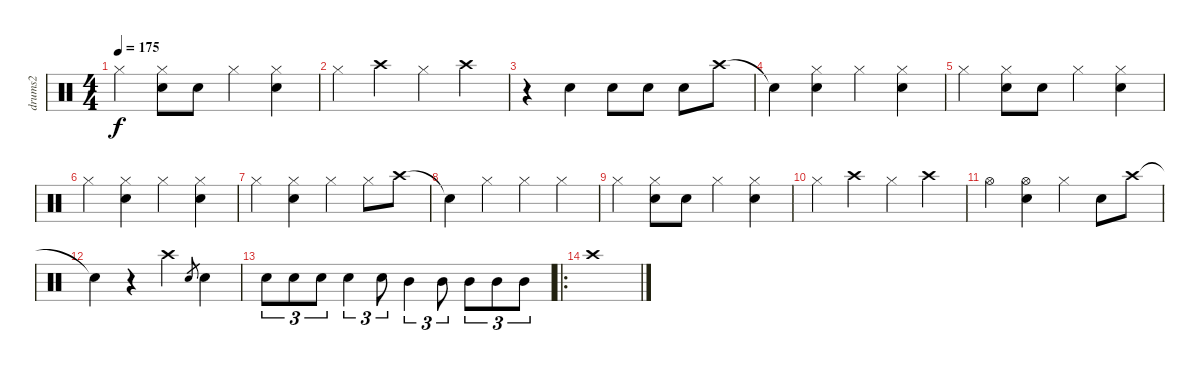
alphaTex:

\track ("drums2" "drums2") {instrument percussion}
\staff {score}
\articulation defaults
\ts (4 4)
\tempo 175
\clef neutral
\ks c "Hi-Hat (closed)".4{dy f}
("Hi-Hat (closed)" "Snare (hit) 2").8 "Snare (hit) 2".8 "Hi-Hat (closed)".4 ("Hi-Hat (closed)" "Snare (hit) 2").4 |
"Hi-Hat (closed)".4 "Crash high (hit)".4 "Hi-Hat (closed)".4 "Crash high (hit)".4 |
r.4 "Snare (hit) 2".4 "Snare (hit) 2".8 "Snare (hit) 2".8 "Snare (hit) 2".8 "Crash high (hit)".8 |
"Snare (hit)"{t}.4 ("Hi-Hat (closed)" "Snare (hit) 2").4 "Hi-Hat (closed)".4 ("Hi-Hat (closed)" "Snare (hit) 2").4 |
"Hi-Hat (closed)".4 ("Hi-Hat (closed)" "Snare (hit) 2").8 "Snare (hit) 2".8 "Hi-Hat (closed)".4 ("Hi-Hat (closed)" "Snare (hit) 2").4 |
"Hi-Hat (closed)".4 ("Hi-Hat (closed)" "Snare (hit) 2").4 "Hi-Hat (closed)".4 ("Hi-Hat (closed)" "Snare (hit) 2").4 |
"Hi-Hat (closed)".4 ("Hi-Hat (closed)" "Snare (hit) 2").4 "Hi-Hat (closed)".4 "Hi-Hat (closed)".8 "Crash high (hit)".8 |
"Snare (hit)"{t}.4 "Hi-Hat (closed)".4 "Hi-Hat (closed)".4 "Hi-Hat (closed)".4 |
"Hi-Hat (closed)".4 ("Hi-Hat (closed)" "Snare (hit) 2").8 "Snare (hit) 2".8 "Hi-Hat (closed)".4 ("Hi-Hat (closed)" "Snare (hit) 2").4 |
"Hi-Hat (closed)".4 "Crash high (hit)".4 "Hi-Hat (closed)".4 "Crash high (hit)".4 |
"Hi-Hat (open)".4 ("Hi-Hat (open)" "Snare (hit) 2").4 "Hi-Hat (closed)".4 "Snare (hit) 2".8 "Crash high (hit)".8 |
"Snare (hit)"{t}.4 r.4 "Crash high (hit)".4 "Snare (hit) 2".8{gr} "Snare (hit) 2".4 |
"Snare (hit) 2".8{tu (3 2)} "Snare (hit) 2".8{tu (3 2)} "Snare (hit) 2".8{tu (3 2)} "Snare (hit) 2".4{tu (3 2)} "Snare (hit) 2".8{tu (3 2)} "Mid Tom (hit)".4{tu (3 2)} "Mid Tom (hit)".8{tu (3 2)} "Mid Tom (hit)".8{tu (3 2)} "Mid Tom (hit)".8{tu (3 2)} "Mid Tom (hit)".8{tu (3 2)} |
\ro "Crash high (hit)".1
